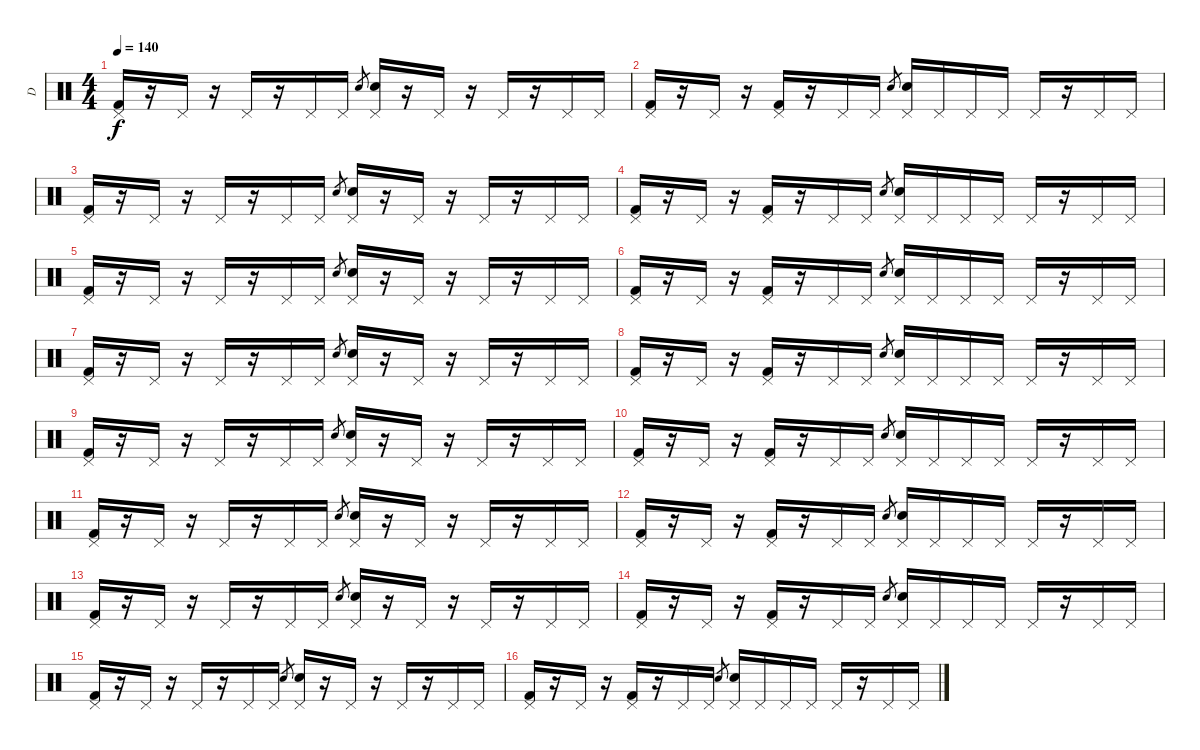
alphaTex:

\track ("D" "D") {instrument percussion}
\staff {score}
\articulation defaults
\ts (4 4)
\tempo 140
\clef neutral
\ks c
("Kick (hit) 2" "Pedal Hi-Hat (hit)").16{dy f} r.16 "Pedal Hi-Hat (hit)".16 r.16 "Pedal Hi-Hat (hit)".16 r.16 "Pedal Hi-Hat (hit)".16 "Pedal Hi-Hat (hit)".16 "Electric Snare (hit)".8{gr} ("Electric Snare (hit)" "Pedal Hi-Hat (hit)").16 r.16 "Pedal Hi-Hat (hit)".16 r.16 "Pedal Hi-Hat (hit)".16 r.16 "Pedal Hi-Hat (hit)".16 "Pedal Hi-Hat (hit)".16 |
("Kick (hit) 2" "Pedal Hi-Hat (hit)").16 r.16 "Pedal Hi-Hat (hit)".16 r.16 ("Kick (hit) 2" "Pedal Hi-Hat (hit)").16 r.16 "Pedal Hi-Hat (hit)".16 "Pedal Hi-Hat (hit)".16 "Electric Snare (hit)".8{gr} ("Electric Snare (hit)" "Pedal Hi-Hat (hit)").16 "Pedal Hi-Hat (hit)".16 "Pedal Hi-Hat (hit)".16 "Pedal Hi-Hat (hit)".16 "Pedal Hi-Hat (hit)".16 r.16 "Pedal Hi-Hat (hit)".16 "Pedal Hi-Hat (hit)".16 |
("Kick (hit) 2" "Pedal Hi-Hat (hit)").16 r.16 "Pedal Hi-Hat (hit)".16 r.16 "Pedal Hi-Hat (hit)".16 r.16 "Pedal Hi-Hat (hit)".16 "Pedal Hi-Hat (hit)".16 "Electric Snare (hit)".8{gr} ("Electric Snare (hit)" "Pedal Hi-Hat (hit)").16 r.16 "Pedal Hi-Hat (hit)".16 r.16 "Pedal Hi-Hat (hit)".16 r.16 "Pedal Hi-Hat (hit)".16 "Pedal Hi-Hat (hit)".16 |
("Kick (hit) 2" "Pedal Hi-Hat (hit)").16 r.16 "Pedal Hi-Hat (hit)".16 r.16 ("Kick (hit) 2" "Pedal Hi-Hat (hit)").16 r.16 "Pedal Hi-Hat (hit)".16 "Pedal Hi-Hat (hit)".16 "Electric Snare (hit)".8{gr} ("Electric Snare (hit)" "Pedal Hi-Hat (hit)").16 "Pedal Hi-Hat (hit)".16 "Pedal Hi-Hat (hit)".16 "Pedal Hi-Hat (hit)".16 "Pedal Hi-Hat (hit)".16 r.16 "Pedal Hi-Hat (hit)".16 "Pedal Hi-Hat (hit)".16 |
("Kick (hit) 2" "Pedal Hi-Hat (hit)").16 r.16 "Pedal Hi-Hat (hit)".16 r.16 "Pedal Hi-Hat (hit)".16 r.16 "Pedal Hi-Hat (hit)".16 "Pedal Hi-Hat (hit)".16 "Electric Snare (hit)".8{gr} ("Electric Snare (hit)" "Pedal Hi-Hat (hit)").16 r.16 "Pedal Hi-Hat (hit)".16 r.16 "Pedal Hi-Hat (hit)".16 r.16 "Pedal Hi-Hat (hit)".16 "Pedal Hi-Hat (hit)".16 |
("Kick (hit) 2" "Pedal Hi-Hat (hit)").16 r.16 "Pedal Hi-Hat (hit)".16 r.16 ("Kick (hit) 2" "Pedal Hi-Hat (hit)").16 r.16 "Pedal Hi-Hat (hit)".16 "Pedal Hi-Hat (hit)".16 "Electric Snare (hit)".8{gr} ("Electric Snare (hit)" "Pedal Hi-Hat (hit)").16 "Pedal Hi-Hat (hit)".16 "Pedal Hi-Hat (hit)".16 "Pedal Hi-Hat (hit)".16 "Pedal Hi-Hat (hit)".16 r.16 "Pedal Hi-Hat (hit)".16 "Pedal Hi-Hat (hit)".16 |
("Kick (hit) 2" "Pedal Hi-Hat (hit)").16 r.16 "Pedal Hi-Hat (hit)".16 r.16 "Pedal Hi-Hat (hit)".16 r.16 "Pedal Hi-Hat (hit)".16 "Pedal Hi-Hat (hit)".16 "Electric Snare (hit)".8{gr} ("Electric Snare (hit)" "Pedal Hi-Hat (hit)").16 r.16 "Pedal Hi-Hat (hit)".16 r.16 "Pedal Hi-Hat (hit)".16 r.16 "Pedal Hi-Hat (hit)".16 "Pedal Hi-Hat (hit)".16 |
("Kick (hit) 2" "Pedal Hi-Hat (hit)").16 r.16 "Pedal Hi-Hat (hit)".16 r.16 ("Kick (hit) 2" "Pedal Hi-Hat (hit)").16 r.16 "Pedal Hi-Hat (hit)".16 "Pedal Hi-Hat (hit)".16 "Electric Snare (hit)".8{gr} ("Electric Snare (hit)" "Pedal Hi-Hat (hit)").16 "Pedal Hi-Hat (hit)".16 "Pedal Hi-Hat (hit)".16 "Pedal Hi-Hat (hit)".16 "Pedal Hi-Hat (hit)".16 r.16 "Pedal Hi-Hat (hit)".16 "Pedal Hi-Hat (hit)".16 |
("Kick (hit) 2" "Pedal Hi-Hat (hit)").16 r.16 "Pedal Hi-Hat (hit)".16 r.16 "Pedal Hi-Hat (hit)".16 r.16 "Pedal Hi-Hat (hit)".16 "Pedal Hi-Hat (hit)".16 "Electric Snare (hit)".8{gr} ("Electric Snare (hit)" "Pedal Hi-Hat (hit)").16 r.16 "Pedal Hi-Hat (hit)".16 r.16 "Pedal Hi-Hat (hit)".16 r.16 "Pedal Hi-Hat (hit)".16 "Pedal Hi-Hat (hit)".16 |
("Kick (hit) 2" "Pedal Hi-Hat (hit)").16 r.16 "Pedal Hi-Hat (hit)".16 r.16 ("Kick (hit) 2" "Pedal Hi-Hat (hit)").16 r.16 "Pedal Hi-Hat (hit)".16 "Pedal Hi-Hat (hit)".16 "Electric Snare (hit)".8{gr} ("Electric Snare (hit)" "Pedal Hi-Hat (hit)").16 "Pedal Hi-Hat (hit)".16 "Pedal Hi-Hat (hit)".16 "Pedal Hi-Hat (hit)".16 "Pedal Hi-Hat (hit)".16 r.16 "Pedal Hi-Hat (hit)".16 "Pedal Hi-Hat (hit)".16 |
("Kick (hit) 2" "Pedal Hi-Hat (hit)").16 r.16 "Pedal Hi-Hat (hit)".16 r.16 "Pedal Hi-Hat (hit)".16 r.16 "Pedal Hi-Hat (hit)".16 "Pedal Hi-Hat (hit)".16 "Electric Snare (hit)".8{gr} ("Electric Snare (hit)" "Pedal Hi-Hat (hit)").16 r.16 "Pedal Hi-Hat (hit)".16 r.16 "Pedal Hi-Hat (hit)".16 r.16 "Pedal Hi-Hat (hit)".16 "Pedal Hi-Hat (hit)".16 |
("Kick (hit) 2" "Pedal Hi-Hat (hit)").16 r.16 "Pedal Hi-Hat (hit)".16 r.16 ("Kick (hit) 2" "Pedal Hi-Hat (hit)").16 r.16 "Pedal Hi-Hat (hit)".16 "Pedal Hi-Hat (hit)".16 "Electric Snare (hit)".8{gr} ("Electric Snare (hit)" "Pedal Hi-Hat (hit)").16 "Pedal Hi-Hat (hit)".16 "Pedal Hi-Hat (hit)".16 "Pedal Hi-Hat (hit)".16 "Pedal Hi-Hat (hit)".16 r.16 "Pedal Hi-Hat (hit)".16 "Pedal Hi-Hat (hit)".16 |
("Kick (hit) 2" "Pedal Hi-Hat (hit)").16 r.16 "Pedal Hi-Hat (hit)".16 r.16 "Pedal Hi-Hat (hit)".16 r.16 "Pedal Hi-Hat (hit)".16 "Pedal Hi-Hat (hit)".16 "Electric Snare (hit)".8{gr} ("Electric Snare (hit)" "Pedal Hi-Hat (hit)").16 r.16 "Pedal Hi-Hat (hit)".16 r.16 "Pedal Hi-Hat (hit)".16 r.16 "Pedal Hi-Hat (hit)".16 "Pedal Hi-Hat (hit)".16 |
("Kick (hit) 2" "Pedal Hi-Hat (hit)").16 r.16 "Pedal Hi-Hat (hit)".16 r.16 ("Kick (hit) 2" "Pedal Hi-Hat (hit)").16 r.16 "Pedal Hi-Hat (hit)".16 "Pedal Hi-Hat (hit)".16 "Electric Snare (hit)".8{gr} ("Electric Snare (hit)" "Pedal Hi-Hat (hit)").16 "Pedal Hi-Hat (hit)".16 "Pedal Hi-Hat (hit)".16 "Pedal Hi-Hat (hit)".16 "Pedal Hi-Hat (hit)".16 r.16 "Pedal Hi-Hat (hit)".16 "Pedal Hi-Hat (hit)".16 |
("Kick (hit) 2" "Pedal Hi-Hat (hit)").16 r.16 "Pedal Hi-Hat (hit)".16 r.16 "Pedal Hi-Hat (hit)".16 r.16 "Pedal Hi-Hat (hit)".16 "Pedal Hi-Hat (hit)".16 "Electric Snare (hit)".8{gr} ("Electric Snare (hit)" "Pedal Hi-Hat (hit)").16 r.16 "Pedal Hi-Hat (hit)".16 r.16 "Pedal Hi-Hat (hit)".16 r.16 "Pedal Hi-Hat (hit)".16 "Pedal Hi-Hat (hit)".16 |
("Kick (hit) 2" "Pedal Hi-Hat (hit)").16 r.16 "Pedal Hi-Hat (hit)".16 r.16 ("Kick (hit) 2" "Pedal Hi-Hat (hit)").16 r.16 "Pedal Hi-Hat (hit)".16 "Pedal Hi-Hat (hit)".16 "Electric Snare (hit)".8{gr} ("Electric Snare (hit)" "Pedal Hi-Hat (hit)").16 "Pedal Hi-Hat (hit)".16 "Pedal Hi-Hat (hit)".16 "Pedal Hi-Hat (hit)".16 "Pedal Hi-Hat (hit)".16 r.16 "Pedal Hi-Hat (hit)".16 "Pedal Hi-Hat (hit)".16
